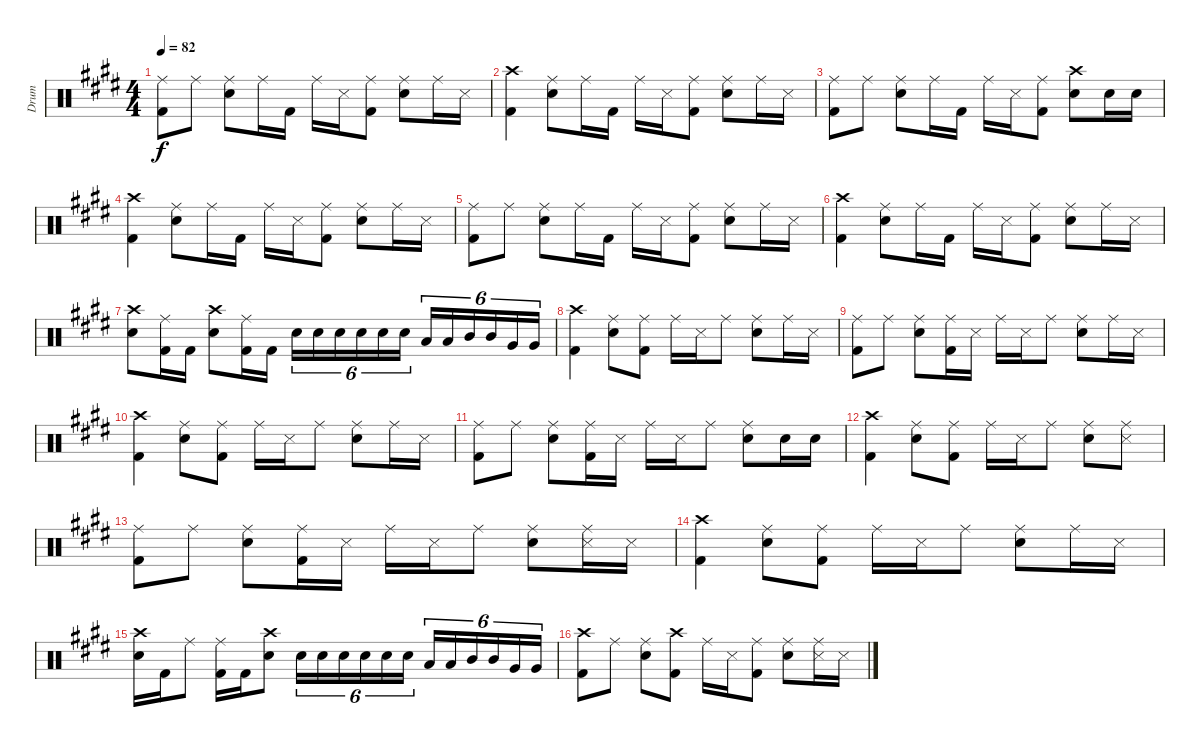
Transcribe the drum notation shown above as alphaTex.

\track ("Drum" "Drum") {instrument percussion}
\staff {score}
\articulation defaults
\ts (4 4)
\tempo 82
\clef neutral
\ks e
("Ride (middle)" "Kick (hit) 2").8{dy f} "Ride (middle)".8 ("Ride (middle)" "Snare (hit) 2").8 "Ride (middle)".16 "Kick (hit) 2".16 "Ride (middle)".16 "Snare (side stick) 3".16 ("Ride (middle)" "Kick (hit) 2").8 ("Ride (middle)" "Snare (hit) 2").8 "Ride (middle)".16 "Snare (side stick) 3".16 |
("Crash high (hit)" "Kick (hit) 2").4 ("Ride (middle)" "Snare (hit) 2").8 "Ride (middle)".16 "Kick (hit) 2".16 "Ride (middle)".16 "Snare (side stick) 3".16 ("Ride (middle)" "Kick (hit) 2").8 ("Ride (middle)" "Snare (hit) 2").8 "Ride (middle)".16 "Snare (side stick) 3".16 |
("Ride (middle)" "Kick (hit) 2").8 "Ride (middle)".8 ("Ride (middle)" "Snare (hit) 2").8 "Ride (middle)".16 "Kick (hit) 2".16 "Ride (middle)".16 "Snare (side stick) 3".16 ("Ride (middle)" "Kick (hit) 2").8 ("Crash high (hit)" "Snare (hit) 2").8 "Snare (hit) 2".16 "Snare (hit) 2".16 |
("Crash high (hit)" "Kick (hit) 2").4 ("Ride (middle)" "Snare (hit) 2").8 "Ride (middle)".16 "Kick (hit) 2".16 "Ride (middle)".16 "Snare (side stick) 3".16 ("Ride (middle)" "Kick (hit) 2").8 ("Ride (middle)" "Snare (hit) 2").8 "Ride (middle)".16 "Snare (side stick) 3".16 |
("Ride (middle)" "Kick (hit) 2").8 "Ride (middle)".8 ("Ride (middle)" "Snare (hit) 2").8 "Ride (middle)".16 "Kick (hit) 2".16 "Ride (middle)".16 "Snare (side stick) 3".16 ("Ride (middle)" "Kick (hit) 2").8 ("Ride (middle)" "Snare (hit) 2").8 "Ride (middle)".16 "Snare (side stick) 3".16 |
("Crash high (hit)" "Kick (hit) 2").4 ("Ride (middle)" "Snare (hit) 2").8 "Ride (middle)".16 "Kick (hit) 2".16 "Ride (middle)".16 "Snare (side stick) 3".16 ("Ride (middle)" "Kick (hit) 2").8 ("Ride (middle)" "Snare (hit) 2").8 "Ride (middle)".16 "Snare (side stick) 3".16 |
("Crash high (hit)" "Snare (hit) 2").8 ("Ride (middle)" "Kick (hit) 2").16 "Kick (hit) 2".16 ("Crash high (hit)" "Snare (hit) 2").8 ("Ride (middle)" "Kick (hit) 2").16 "Kick (hit) 2".16 "Snare (hit) 2".16{tu (6 4)} "Snare (hit) 2".16{tu (6 4)} "Snare (hit) 2".16{tu (6 4)} "Snare (hit) 2".16{tu (6 4)} "Snare (hit) 2".16{tu (6 4)} "Snare (hit) 2".16{tu (6 4)} "Low Tom (hit)".16{tu (6 4)} "Low Tom (hit)".16{tu (6 4)} "Mid Tom (hit)".16{tu (6 4)} "Mid Tom (hit)".16{tu (6 4)} "Very Low Tom (hit)".16{tu (6 4)} "Very Low Tom (hit)".16{tu (6 4)} |
("Crash high (hit)" "Kick (hit) 2").4 ("Ride (middle)" "Snare (hit) 2").8 ("Ride (middle)" "Kick (hit) 2").8 "Ride (middle)".16 "Snare (side stick) 3".16 "Ride (middle)".8 ("Ride (middle)" "Snare (hit) 2").8 "Ride (middle)".16 "Snare (side stick) 3".16 |
("Ride (middle)" "Kick (hit) 2").8 "Ride (middle)".8 ("Ride (middle)" "Snare (hit) 2").8 ("Ride (middle)" "Kick (hit) 2").16 "Snare (side stick) 3".16 "Ride (middle)".16 "Snare (side stick) 3".16 "Ride (middle)".8 ("Ride (middle)" "Snare (hit) 2").8 "Ride (middle)".16 "Snare (side stick) 3".16 |
("Crash high (hit)" "Kick (hit) 2").4 ("Ride (middle)" "Snare (hit) 2").8 ("Ride (middle)" "Kick (hit) 2").8 "Ride (middle)".16 "Snare (side stick) 3".16 "Ride (middle)".8 ("Ride (middle)" "Snare (hit) 2").8 "Ride (middle)".16 "Snare (side stick) 3".16 |
("Ride (middle)" "Kick (hit) 2").8 "Ride (middle)".8 ("Ride (middle)" "Snare (hit) 2").8 ("Ride (middle)" "Kick (hit) 2").16 "Snare (side stick) 3".16 "Ride (middle)".16 "Snare (side stick) 3".16 "Ride (middle)".8 ("Ride (middle)" "Snare (hit) 2").8 "Snare (hit) 2".16 "Snare (hit) 2".16 |
("Crash high (hit)" "Kick (hit) 2").4 ("Ride (middle)" "Snare (hit) 2").8 ("Ride (middle)" "Kick (hit) 2").8 "Ride (middle)".16 "Snare (side stick) 3".16 "Ride (middle)".8 ("Ride (middle)" "Snare (hit) 2").8 ("Ride (middle)" "Snare (side stick) 3").8 |
("Ride (middle)" "Kick (hit) 2").8 "Ride (middle)".8 ("Ride (middle)" "Snare (hit) 2").8 ("Ride (middle)" "Kick (hit) 2").16 "Snare (side stick) 3".16 "Ride (middle)".16 "Snare (side stick) 3".16 "Ride (middle)".8 ("Ride (middle)" "Snare (hit) 2").8 ("Ride (middle)" "Snare (side stick) 3").16 "Snare (side stick) 3".16 |
("Crash high (hit)" "Kick (hit) 2").4 ("Ride (middle)" "Snare (hit) 2").8 ("Ride (middle)" "Kick (hit) 2").8 "Ride (middle)".16 "Snare (side stick) 3".16 "Ride (middle)".8 ("Ride (middle)" "Snare (hit) 2").8 "Ride (middle)".16 "Snare (side stick) 3".16 |
("Crash high (hit)" "Snare (hit) 2").16 "Kick (hit) 2".16 "Ride (middle)".8 ("Ride (middle)" "Kick (hit) 2").16 "Kick (hit) 2".16 ("Crash high (hit)" "Snare (hit) 2").8 "Snare (hit) 2".16{tu (6 4)} "Snare (hit) 2".16{tu (6 4)} "Snare (hit) 2".16{tu (6 4)} "Snare (hit) 2".16{tu (6 4)} "Snare (hit) 2".16{tu (6 4)} "Snare (hit) 2".16{tu (6 4)} "Low Tom (hit)".16{tu (6 4)} "Low Tom (hit)".16{tu (6 4)} "Mid Tom (hit)".16{tu (6 4)} "Mid Tom (hit)".16{tu (6 4)} "Very Low Tom (hit)".16{tu (6 4)} "Very Low Tom (hit)".16{tu (6 4)} |
("Crash high (hit)" "Kick (hit) 2").8 "Ride (middle)".8 ("Ride (middle)" "Snare (hit) 2").8 ("Crash high (hit)" "Kick (hit) 2").8 "Ride (middle)".16 "Snare (side stick) 3".16 ("Ride (middle)" "Kick (hit) 2").8 ("Ride (middle)" "Snare (hit) 2").8 ("Ride (middle)" "Snare (side stick) 3").16 "Snare (side stick) 3".16
